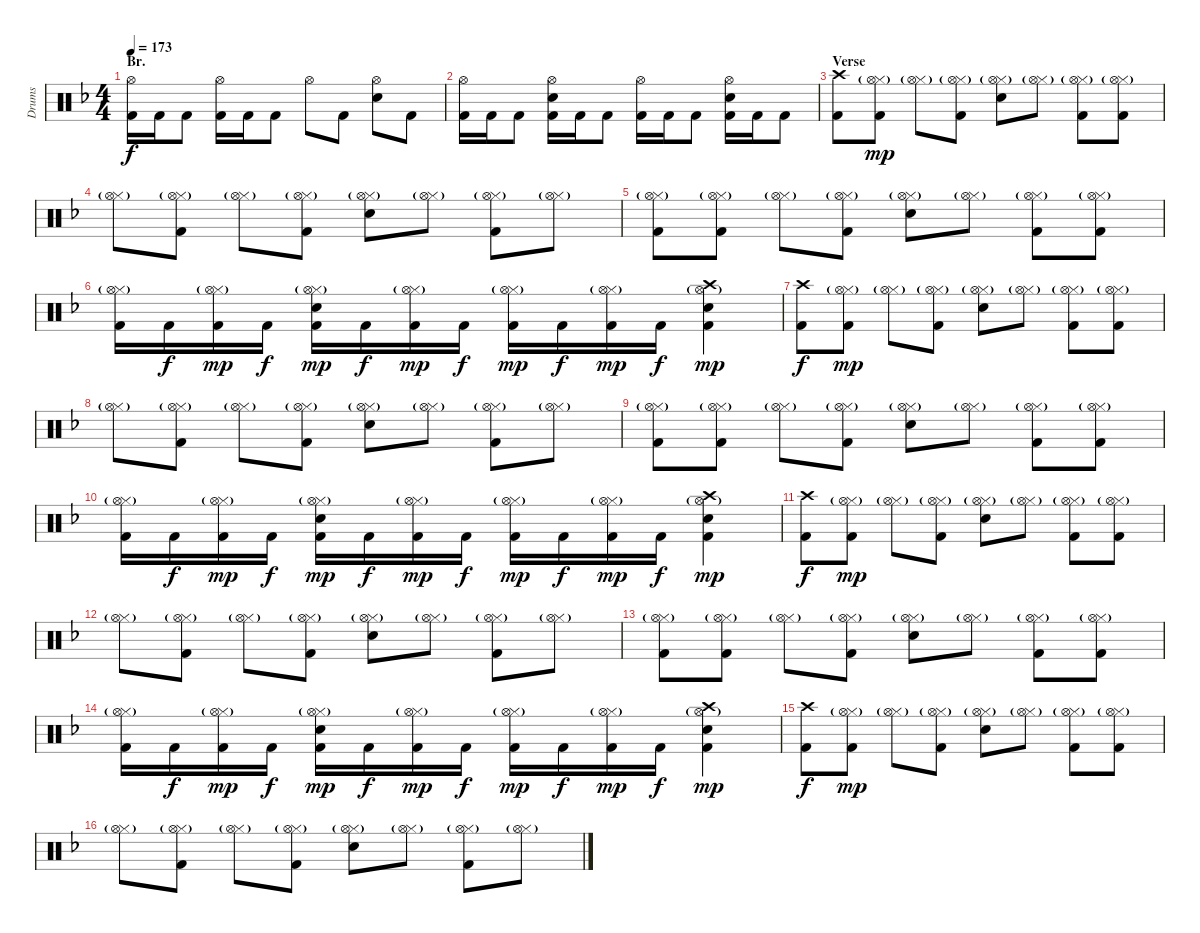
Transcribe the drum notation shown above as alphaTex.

\track ("Drums" "Drums") {instrument percussion}
\staff {score}
\articulation defaults
\ts (4 4)
\section ("" "Br.")
\tempo 173
\clef neutral
\ks dminor
("Hi-Hat (open)" "Kick (hit) 2").16{dy f} "Kick (hit) 2".16 "Kick (hit) 2".8 ("Hi-Hat (open)" "Kick (hit) 2").16 "Kick (hit) 2".16 "Kick (hit) 2".8 "Hi-Hat (open)".8 "Kick (hit) 2".8 ("Hi-Hat (open)" "Snare (hit) 2").8 "Kick (hit) 2".8 |
("Hi-Hat (open)" "Kick (hit) 2").16 "Kick (hit) 2".16 "Kick (hit) 2".8 ("Hi-Hat (open)" "Snare (hit) 2" "Kick (hit) 2").16 "Kick (hit) 2".16 "Kick (hit) 2".8 ("Hi-Hat (open)" "Kick (hit) 2").16 "Kick (hit) 2".16 "Kick (hit) 2".8 ("Hi-Hat (open)" "Snare (hit) 2" "Kick (hit) 2").16 "Kick (hit) 2".16 "Kick (hit) 2".8 |
\section ("" "Verse")
("Crash high (hit)" "Kick (hit) 2").8 ("Hi-Hat (closed)"{g} "Hi-Hat (open)"{g} "Kick (hit) 2").8{dy mp} ("Hi-Hat (closed)"{g} "Hi-Hat (open)"{g}).8 ("Hi-Hat (closed)"{g} "Hi-Hat (open)"{g} "Kick (hit) 2").8 ("Hi-Hat (closed)"{g} "Hi-Hat (open)"{g} "Snare (hit) 2").8 ("Hi-Hat (closed)"{g} "Hi-Hat (open)"{g}).8 ("Hi-Hat (closed)"{g} "Hi-Hat (open)"{g} "Kick (hit) 2").8 ("Hi-Hat (closed)"{g} "Hi-Hat (open)"{g} "Kick (hit) 2").8 |
("Hi-Hat (closed)"{g} "Hi-Hat (open)"{g}).8 ("Hi-Hat (closed)"{g} "Hi-Hat (open)"{g} "Kick (hit) 2").8 ("Hi-Hat (closed)"{g} "Hi-Hat (open)"{g}).8 ("Hi-Hat (closed)"{g} "Hi-Hat (open)"{g} "Kick (hit) 2").8 ("Hi-Hat (closed)"{g} "Hi-Hat (open)"{g} "Snare (hit) 2").8 ("Hi-Hat (closed)"{g} "Hi-Hat (open)"{g}).8 ("Hi-Hat (closed)"{g} "Hi-Hat (open)"{g} "Kick (hit) 2").8 ("Hi-Hat (closed)"{g} "Hi-Hat (open)"{g}).8 |
("Hi-Hat (closed)"{g} "Hi-Hat (open)"{g} "Kick (hit) 2").8 ("Hi-Hat (closed)"{g} "Hi-Hat (open)"{g} "Kick (hit) 2").8 ("Hi-Hat (closed)"{g} "Hi-Hat (open)"{g}).8 ("Hi-Hat (closed)"{g} "Hi-Hat (open)"{g} "Kick (hit) 2").8 ("Hi-Hat (closed)"{g} "Hi-Hat (open)"{g} "Snare (hit) 2").8 ("Hi-Hat (closed)"{g} "Hi-Hat (open)"{g}).8 ("Hi-Hat (closed)"{g} "Hi-Hat (open)"{g} "Kick (hit) 2").8 ("Hi-Hat (closed)"{g} "Hi-Hat (open)"{g} "Kick (hit) 2").8 |
("Hi-Hat (closed)"{g} "Hi-Hat (open)"{g} "Kick (hit) 2").16 "Kick (hit) 2".16{dy f} ("Hi-Hat (closed)"{g} "Hi-Hat (open)"{g} "Kick (hit) 2").16{dy mp} "Kick (hit) 2".16{dy f} ("Hi-Hat (closed)"{g} "Hi-Hat (open)"{g} "Snare (hit) 2" "Kick (hit) 2").16{dy mp} "Kick (hit) 2".16{dy f} ("Hi-Hat (closed)"{g} "Hi-Hat (open)"{g} "Kick (hit) 2").16{dy mp} "Kick (hit) 2".16{dy f} ("Hi-Hat (closed)"{g} "Hi-Hat (open)"{g} "Kick (hit) 2").16{dy mp} "Kick (hit) 2".16{dy f} ("Hi-Hat (closed)"{g} "Hi-Hat (open)"{g} "Kick (hit) 2").16{dy mp} "Kick (hit) 2".16{dy f} ("Crash high (hit)" "Hi-Hat (open)"{g} "Snare (hit) 2" "Kick (hit) 2").4{dy mp} |
("Crash high (hit)" "Kick (hit) 2").8{dy f} ("Hi-Hat (closed)"{g} "Hi-Hat (open)"{g} "Kick (hit) 2").8{dy mp} ("Hi-Hat (closed)"{g} "Hi-Hat (open)"{g}).8 ("Hi-Hat (closed)"{g} "Hi-Hat (open)"{g} "Kick (hit) 2").8 ("Hi-Hat (closed)"{g} "Hi-Hat (open)"{g} "Snare (hit) 2").8 ("Hi-Hat (closed)"{g} "Hi-Hat (open)"{g}).8 ("Hi-Hat (closed)"{g} "Hi-Hat (open)"{g} "Kick (hit) 2").8 ("Hi-Hat (closed)"{g} "Hi-Hat (open)"{g} "Kick (hit) 2").8 |
("Hi-Hat (closed)"{g} "Hi-Hat (open)"{g}).8 ("Hi-Hat (closed)"{g} "Hi-Hat (open)"{g} "Kick (hit) 2").8 ("Hi-Hat (closed)"{g} "Hi-Hat (open)"{g}).8 ("Hi-Hat (closed)"{g} "Hi-Hat (open)"{g} "Kick (hit) 2").8 ("Hi-Hat (closed)"{g} "Hi-Hat (open)"{g} "Snare (hit) 2").8 ("Hi-Hat (closed)"{g} "Hi-Hat (open)"{g}).8 ("Hi-Hat (closed)"{g} "Hi-Hat (open)"{g} "Kick (hit) 2").8 ("Hi-Hat (closed)"{g} "Hi-Hat (open)"{g}).8 |
("Hi-Hat (closed)"{g} "Hi-Hat (open)"{g} "Kick (hit) 2").8 ("Hi-Hat (closed)"{g} "Hi-Hat (open)"{g} "Kick (hit) 2").8 ("Hi-Hat (closed)"{g} "Hi-Hat (open)"{g}).8 ("Hi-Hat (closed)"{g} "Hi-Hat (open)"{g} "Kick (hit) 2").8 ("Hi-Hat (closed)"{g} "Hi-Hat (open)"{g} "Snare (hit) 2").8 ("Hi-Hat (closed)"{g} "Hi-Hat (open)"{g}).8 ("Hi-Hat (closed)"{g} "Hi-Hat (open)"{g} "Kick (hit) 2").8 ("Hi-Hat (closed)"{g} "Hi-Hat (open)"{g} "Kick (hit) 2").8 |
("Hi-Hat (closed)"{g} "Hi-Hat (open)"{g} "Kick (hit) 2").16 "Kick (hit) 2".16{dy f} ("Hi-Hat (closed)"{g} "Hi-Hat (open)"{g} "Kick (hit) 2").16{dy mp} "Kick (hit) 2".16{dy f} ("Hi-Hat (closed)"{g} "Hi-Hat (open)"{g} "Snare (hit) 2" "Kick (hit) 2").16{dy mp} "Kick (hit) 2".16{dy f} ("Hi-Hat (closed)"{g} "Hi-Hat (open)"{g} "Kick (hit) 2").16{dy mp} "Kick (hit) 2".16{dy f} ("Hi-Hat (closed)"{g} "Hi-Hat (open)"{g} "Kick (hit) 2").16{dy mp} "Kick (hit) 2".16{dy f} ("Hi-Hat (closed)"{g} "Hi-Hat (open)"{g} "Kick (hit) 2").16{dy mp} "Kick (hit) 2".16{dy f} ("Crash high (hit)" "Hi-Hat (open)"{g} "Snare (hit) 2" "Kick (hit) 2").4{dy mp} |
("Crash high (hit)" "Kick (hit) 2").8{dy f} ("Hi-Hat (closed)"{g} "Hi-Hat (open)"{g} "Kick (hit) 2").8{dy mp} ("Hi-Hat (closed)"{g} "Hi-Hat (open)"{g}).8 ("Hi-Hat (closed)"{g} "Hi-Hat (open)"{g} "Kick (hit) 2").8 ("Hi-Hat (closed)"{g} "Hi-Hat (open)"{g} "Snare (hit) 2").8 ("Hi-Hat (closed)"{g} "Hi-Hat (open)"{g}).8 ("Hi-Hat (closed)"{g} "Hi-Hat (open)"{g} "Kick (hit) 2").8 ("Hi-Hat (closed)"{g} "Hi-Hat (open)"{g} "Kick (hit) 2").8 |
("Hi-Hat (closed)"{g} "Hi-Hat (open)"{g}).8 ("Hi-Hat (closed)"{g} "Hi-Hat (open)"{g} "Kick (hit) 2").8 ("Hi-Hat (closed)"{g} "Hi-Hat (open)"{g}).8 ("Hi-Hat (closed)"{g} "Hi-Hat (open)"{g} "Kick (hit) 2").8 ("Hi-Hat (closed)"{g} "Hi-Hat (open)"{g} "Snare (hit) 2").8 ("Hi-Hat (closed)"{g} "Hi-Hat (open)"{g}).8 ("Hi-Hat (closed)"{g} "Hi-Hat (open)"{g} "Kick (hit) 2").8 ("Hi-Hat (closed)"{g} "Hi-Hat (open)"{g}).8 |
("Hi-Hat (closed)"{g} "Hi-Hat (open)"{g} "Kick (hit) 2").8 ("Hi-Hat (closed)"{g} "Hi-Hat (open)"{g} "Kick (hit) 2").8 ("Hi-Hat (closed)"{g} "Hi-Hat (open)"{g}).8 ("Hi-Hat (closed)"{g} "Hi-Hat (open)"{g} "Kick (hit) 2").8 ("Hi-Hat (closed)"{g} "Hi-Hat (open)"{g} "Snare (hit) 2").8 ("Hi-Hat (closed)"{g} "Hi-Hat (open)"{g}).8 ("Hi-Hat (closed)"{g} "Hi-Hat (open)"{g} "Kick (hit) 2").8 ("Hi-Hat (closed)"{g} "Hi-Hat (open)"{g} "Kick (hit) 2").8 |
("Hi-Hat (closed)"{g} "Hi-Hat (open)"{g} "Kick (hit) 2").16 "Kick (hit) 2".16{dy f} ("Hi-Hat (closed)"{g} "Hi-Hat (open)"{g} "Kick (hit) 2").16{dy mp} "Kick (hit) 2".16{dy f} ("Hi-Hat (closed)"{g} "Hi-Hat (open)"{g} "Snare (hit) 2" "Kick (hit) 2").16{dy mp} "Kick (hit) 2".16{dy f} ("Hi-Hat (closed)"{g} "Hi-Hat (open)"{g} "Kick (hit) 2").16{dy mp} "Kick (hit) 2".16{dy f} ("Hi-Hat (closed)"{g} "Hi-Hat (open)"{g} "Kick (hit) 2").16{dy mp} "Kick (hit) 2".16{dy f} ("Hi-Hat (closed)"{g} "Hi-Hat (open)"{g} "Kick (hit) 2").16{dy mp} "Kick (hit) 2".16{dy f} ("Crash high (hit)" "Hi-Hat (open)"{g} "Snare (hit) 2" "Kick (hit) 2").4{dy mp} |
("Crash high (hit)" "Kick (hit) 2").8{dy f} ("Hi-Hat (closed)"{g} "Hi-Hat (open)"{g} "Kick (hit) 2").8{dy mp} ("Hi-Hat (closed)"{g} "Hi-Hat (open)"{g}).8 ("Hi-Hat (closed)"{g} "Hi-Hat (open)"{g} "Kick (hit) 2").8 ("Hi-Hat (closed)"{g} "Hi-Hat (open)"{g} "Snare (hit) 2").8 ("Hi-Hat (closed)"{g} "Hi-Hat (open)"{g}).8 ("Hi-Hat (closed)"{g} "Hi-Hat (open)"{g} "Kick (hit) 2").8 ("Hi-Hat (closed)"{g} "Hi-Hat (open)"{g} "Kick (hit) 2").8 |
("Hi-Hat (closed)"{g} "Hi-Hat (open)"{g}).8 ("Hi-Hat (closed)"{g} "Hi-Hat (open)"{g} "Kick (hit) 2").8 ("Hi-Hat (closed)"{g} "Hi-Hat (open)"{g}).8 ("Hi-Hat (closed)"{g} "Hi-Hat (open)"{g} "Kick (hit) 2").8 ("Hi-Hat (closed)"{g} "Hi-Hat (open)"{g} "Snare (hit) 2").8 ("Hi-Hat (closed)"{g} "Hi-Hat (open)"{g}).8 ("Hi-Hat (closed)"{g} "Hi-Hat (open)"{g} "Kick (hit) 2").8 ("Hi-Hat (closed)"{g} "Hi-Hat (open)"{g}).8
